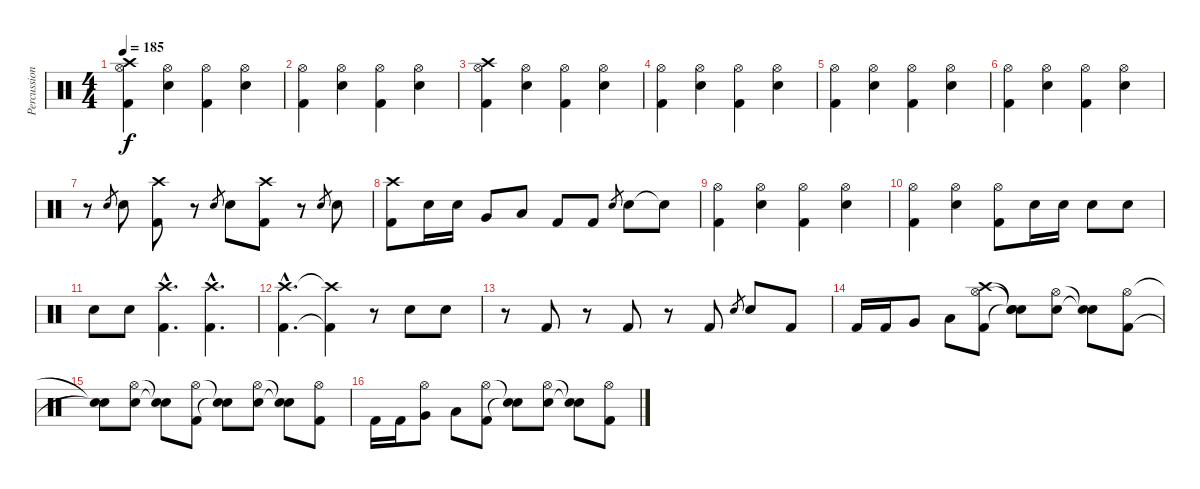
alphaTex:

\track ("Percussion" "Percussion") {instrument percussion}
\staff {score}
\articulation defaults
\ts (4 4)
\tempo 185
\clef neutral
\ks c
("Hi-Hat (open)" "Crash high (hit)" "Kick (hit) 2").4{dy f} ("Hi-Hat (open)" "Electric Snare (hit)").4 ("Hi-Hat (open)" "Kick (hit) 2").4 ("Hi-Hat (open)" "Electric Snare (hit)").4 |
("Hi-Hat (open)" "Kick (hit) 2").4 ("Hi-Hat (open)" "Electric Snare (hit)").4 ("Hi-Hat (open)" "Kick (hit) 2").4 ("Hi-Hat (open)" "Electric Snare (hit)").4 |
("Hi-Hat (open)" "Crash high (hit)" "Kick (hit) 2").4 ("Hi-Hat (open)" "Electric Snare (hit)").4 ("Hi-Hat (open)" "Kick (hit) 2").4 ("Hi-Hat (open)" "Electric Snare (hit)").4 |
("Hi-Hat (open)" "Kick (hit) 2").4 ("Hi-Hat (open)" "Electric Snare (hit)").4 ("Hi-Hat (open)" "Kick (hit) 2").4 ("Hi-Hat (open)" "Electric Snare (hit)").4 |
("Hi-Hat (open)" "Kick (hit) 2").4 ("Hi-Hat (open)" "Electric Snare (hit)").4 ("Hi-Hat (open)" "Kick (hit) 2").4 ("Hi-Hat (open)" "Electric Snare (hit)").4 |
("Hi-Hat (open)" "Kick (hit) 2").4 ("Hi-Hat (open)" "Electric Snare (hit)").4 ("Hi-Hat (open)" "Kick (hit) 2").4 ("Hi-Hat (open)" "Electric Snare (hit)").4 |
r.8 "Electric Snare (hit)".8{gr} "Electric Snare (hit)".8 ("Crash high (hit)" "Kick (hit) 2").8 r.8 "Electric Snare (hit)".8{gr} "Electric Snare (hit)".8 ("Crash high (hit)" "Kick (hit) 2").8 r.8 "Electric Snare (hit)".8{gr} "Electric Snare (hit)".8 |
("Crash high (hit)" "Kick (hit) 2").8 "Electric Snare (hit)".16 "Electric Snare (hit)".16 "Very Low Tom (hit)".8 "Low Floor Tom (hit)".8 "Kick (hit) 2".8 "Kick (hit) 2".8 "Electric Snare (hit)".8{gr} "Electric Snare (hit)".8 "Snare (hit)"{t}.8 |
("Hi-Hat (open)" "Kick (hit) 2").4 ("Hi-Hat (open)" "Electric Snare (hit)").4 ("Hi-Hat (open)" "Kick (hit) 2").4 ("Hi-Hat (open)" "Electric Snare (hit)").4 |
("Hi-Hat (open)" "Kick (hit) 2").4 ("Hi-Hat (open)" "Electric Snare (hit)").4 ("Hi-Hat (open)" "Kick (hit) 2").8 "Electric Snare (hit)".16 "Electric Snare (hit)".16 "Electric Snare (hit)".8 "Electric Snare (hit)".8 |
"Electric Snare (hit)".8 "Electric Snare (hit)".8 ("Crash high (hit)"{hac} "Kick (hit) 2"{hac}).4{d} ("Crash high (hit)"{hac} "Kick (hit) 2"{hac}).4{d} |
("Crash high (hit)"{hac} "Kick (hit) 2"{hac}).4{d} ("Crash high (hit)"{t} "Kick (hit) 2"{t}).4 r.8 "Electric Snare (hit)".8 "Electric Snare (hit)".8 |
r.8 "Kick (hit) 2".8 r.8 "Kick (hit) 2".8 r.8 "Kick (hit) 2".8 "Electric Snare (hit)".8{gr} "Electric Snare (hit)".8 "Kick (hit) 2".8 |
"Kick (hit) 2".16 "Kick (hit) 2".16 "Very Low Tom (hit)".8 "Low Floor Tom (hit)".8 ("Hi-Hat (open)" "Crash high (hit)" "Kick (hit) 2").8 ("Snare (hit)"{t} "Snare (hit)"{t} "Snare (hit)"{t}).8 ("Hi-Hat (open)" "Electric Snare (hit)").8 ("Snare (hit)"{t} "Snare (hit)"{t}).8 ("Hi-Hat (open)" "Kick (hit) 2").8 |
("Snare (hit)"{t} "Snare (hit)"{t}).8 ("Hi-Hat (open)" "Electric Snare (hit)").8 ("Snare (hit)"{t} "Snare (hit)"{t}).8 ("Hi-Hat (open)" "Kick (hit) 2").8 ("Snare (hit)"{t} "Snare (hit)"{t}).8 ("Hi-Hat (open)" "Electric Snare (hit)").8 ("Snare (hit)"{t} "Snare (hit)"{t}).8 ("Hi-Hat (open)" "Kick (hit) 2").8 |
"Kick (hit) 2".16 "Kick (hit) 2".16 ("Hi-Hat (open)" "Very Low Tom (hit)").8 "Low Floor Tom (hit)".8 ("Hi-Hat (open)" "Kick (hit) 2").8 ("Snare (hit)"{t} "Snare (hit)"{t}).8 ("Hi-Hat (open)" "Electric Snare (hit)").8 ("Snare (hit)"{t} "Snare (hit)"{t}).8 ("Hi-Hat (open)" "Kick (hit) 2").8
